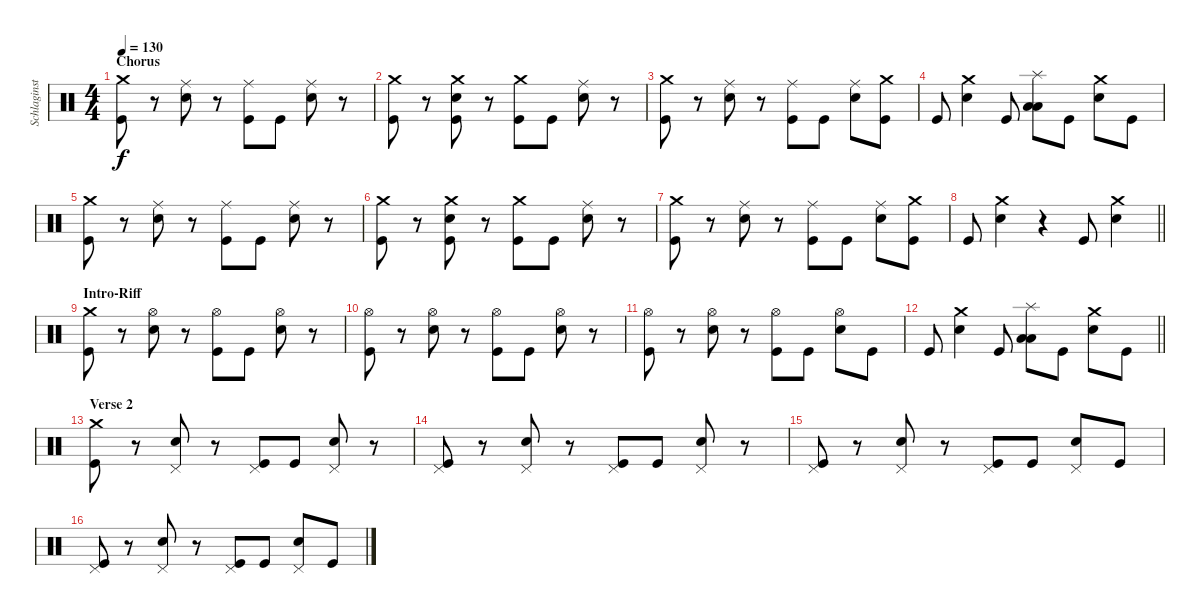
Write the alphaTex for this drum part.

\track ("Schlaginstrumente - Auswahl" "Schlaginst") {instrument percussion}
\staff {score}
\articulation defaults
\ts (4 4)
\section ("" "Chorus")
\tempo 130
\clef neutral
\ks c
("Crash medium (hit)" "Kick (hit)").8{dy f} r.8 ("Ride (middle)" "Snare (hit) 2").8 r.8 ("Ride (middle)" "Kick (hit)").8 "Kick (hit)".8 ("Ride (middle)" "Snare (hit) 2").8 r.8 |
("Crash medium (hit)" "Kick (hit)").8 r.8 ("Crash medium (hit)" "Snare (hit) 2" "Kick (hit)").8 r.8 ("Crash medium (hit)" "Kick (hit)").8 "Kick (hit)".8 ("Ride (middle)" "Snare (hit) 2").8 r.8 |
("Crash medium (hit)" "Kick (hit)").8 r.8 ("Ride (middle)" "Snare (hit) 2").8 r.8 ("Ride (middle)" "Kick (hit)").8 "Kick (hit)".8 ("Ride (middle)" "Snare (hit) 2").8 ("Crash medium (hit)" "Kick (hit)").8 |
"Kick (hit)".8 ("Crash medium (hit)" "Snare (hit) 2").4 "Kick (hit)".8 ("Splash (hit)" "Low Tom (hit)" "Low Tom (hit)").8 "Kick (hit)".8 ("Crash medium (hit)" "Snare (hit) 2").8 "Kick (hit)".8 |
("Crash medium (hit)" "Kick (hit)").8 r.8 ("Ride (middle)" "Snare (hit) 2").8 r.8 ("Ride (middle)" "Kick (hit)").8 "Kick (hit)".8 ("Ride (middle)" "Snare (hit) 2").8 r.8 |
("Crash medium (hit)" "Kick (hit)").8 r.8 ("Crash medium (hit)" "Snare (hit) 2" "Kick (hit)").8 r.8 ("Crash medium (hit)" "Kick (hit)").8 "Kick (hit)".8 ("Ride (middle)" "Snare (hit) 2").8 r.8 |
("Crash medium (hit)" "Kick (hit)").8 r.8 ("Ride (middle)" "Snare (hit) 2").8 r.8 ("Ride (middle)" "Kick (hit)").8 "Kick (hit)".8 ("Ride (middle)" "Snare (hit) 2").8 ("Crash medium (hit)" "Kick (hit)").8 |
\barLineRight lightlight "Kick (hit)".8
("Crash medium (hit)" "Snare (hit) 2").4 r.4 "Kick (hit)".8 ("Crash medium (hit)" "Snare (hit) 2").4 |
\section ("" "Intro-Riff")
("Crash medium (hit)" "Kick (hit)").8 r.8 ("Hi-Hat (open)" "Snare (hit) 2").8 r.8 ("Hi-Hat (open)" "Kick (hit)").8 "Kick (hit)".8 ("Hi-Hat (open)" "Snare (hit) 2").8 r.8 |
("Hi-Hat (open)" "Kick (hit)").8 r.8 ("Hi-Hat (open)" "Snare (hit) 2").8 r.8 ("Hi-Hat (open)" "Kick (hit)").8 "Kick (hit)".8 ("Hi-Hat (open)" "Snare (hit) 2").8 r.8 |
("Hi-Hat (open)" "Kick (hit)").8 r.8 ("Hi-Hat (open)" "Snare (hit) 2").8 r.8 ("Hi-Hat (open)" "Kick (hit)").8 "Kick (hit)".8 ("Hi-Hat (open)" "Snare (hit) 2").8 "Kick (hit)".8 |
\barLineRight lightlight "Kick (hit)".8
("Crash medium (hit)" "Snare (hit) 2").4 "Kick (hit)".8 ("Splash (hit)" "Low Tom (hit)" "Low Tom (hit)").8 "Kick (hit)".8 ("Crash medium (hit)" "Snare (hit) 2").8 "Kick (hit)".8 |
\section ("" "Verse 2")
("Crash medium (hit)" "Kick (hit)").8 r.8 ("Pedal Hi-Hat (hit)" "Snare (hit) 2").8 r.8 ("Pedal Hi-Hat (hit)" "Kick (hit)").8 "Kick (hit)".8 ("Pedal Hi-Hat (hit)" "Snare (hit) 2").8 r.8 |
("Pedal Hi-Hat (hit)" "Kick (hit)").8 r.8 ("Pedal Hi-Hat (hit)" "Snare (hit) 2").8 r.8 ("Pedal Hi-Hat (hit)" "Kick (hit)").8 "Kick (hit)".8 ("Pedal Hi-Hat (hit)" "Snare (hit) 2").8 r.8 |
("Pedal Hi-Hat (hit)" "Kick (hit)").8 r.8 ("Pedal Hi-Hat (hit)" "Snare (hit) 2").8 r.8 ("Pedal Hi-Hat (hit)" "Kick (hit)").8 "Kick (hit)".8 ("Pedal Hi-Hat (hit)" "Snare (hit) 2").8 "Kick (hit)".8 |
("Pedal Hi-Hat (hit)" "Kick (hit)").8 r.8 ("Pedal Hi-Hat (hit)" "Snare (hit) 2").8 r.8 ("Pedal Hi-Hat (hit)" "Kick (hit)").8 "Kick (hit)".8 ("Pedal Hi-Hat (hit)" "Snare (hit) 2").8 "Kick (hit)".8
